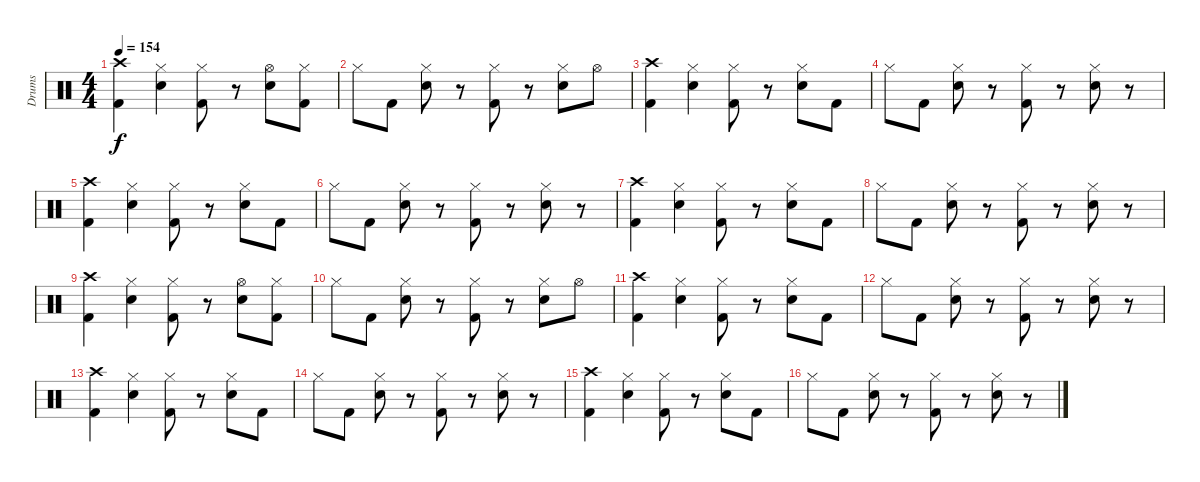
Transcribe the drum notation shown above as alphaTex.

\track ("Drums" "Drums") {instrument percussion}
\staff {score}
\articulation defaults
\ts (4 4)
\tempo 154
\clef neutral
\ks c
("Kick (hit) 2" "Crash high (hit)").4{dy f} ("Hi-Hat (closed)" "Snare (hit) 2").4 ("Kick (hit) 2" "Hi-Hat (closed)").8 r.8 ("Hi-Hat (open)" "Snare (hit) 2").8 ("Hi-Hat (closed)" "Kick (hit) 2").8 |
"Hi-Hat (closed)".8 "Kick (hit) 2".8 ("Snare (hit) 2" "Hi-Hat (closed)").8 r.8 ("Hi-Hat (closed)" "Kick (hit) 2").8 r.8 ("Hi-Hat (closed)" "Snare (hit) 2").8 "Hi-Hat (open)".8 |
("Crash high (hit)" "Kick (hit) 2").4 ("Hi-Hat (closed)" "Snare (hit) 2").4 ("Kick (hit) 2" "Hi-Hat (closed)").8 r.8 ("Hi-Hat (closed)" "Snare (hit) 2").8 "Kick (hit) 2".8 |
"Hi-Hat (closed)".8 "Kick (hit) 2".8 ("Hi-Hat (closed)" "Snare (hit) 2").8 r.8 ("Hi-Hat (closed)" "Kick (hit) 2").8 r.8 ("Snare (hit) 2" "Hi-Hat (closed)").8 r.8 |
("Crash high (hit)" "Kick (hit) 2").4 ("Snare (hit) 2" "Hi-Hat (closed)").4 ("Hi-Hat (closed)" "Kick (hit) 2").8 r.8 ("Hi-Hat (closed)" "Snare (hit) 2").8 "Kick (hit) 2".8 |
"Hi-Hat (closed)".8 "Kick (hit) 2".8 ("Snare (hit) 2" "Hi-Hat (closed)").8 r.8 ("Hi-Hat (closed)" "Kick (hit) 2").8 r.8 ("Hi-Hat (closed)" "Snare (hit) 2").8 r.8 |
("Kick (hit) 2" "Crash high (hit)").4 ("Hi-Hat (closed)" "Snare (hit) 2").4 ("Kick (hit) 2" "Hi-Hat (closed)").8 r.8 ("Hi-Hat (closed)" "Snare (hit) 2").8 "Kick (hit) 2".8 |
"Hi-Hat (closed)".8 "Kick (hit) 2".8 ("Snare (hit) 2" "Hi-Hat (closed)").8 r.8 ("Hi-Hat (closed)" "Kick (hit) 2").8 r.8 ("Hi-Hat (closed)" "Snare (hit) 2").8 r.8 |
("Kick (hit) 2" "Crash high (hit)").4 ("Hi-Hat (closed)" "Snare (hit) 2").4 ("Kick (hit) 2" "Hi-Hat (closed)").8 r.8 ("Hi-Hat (open)" "Snare (hit) 2").8 ("Kick (hit) 2" "Hi-Hat (closed)").8 |
"Hi-Hat (closed)".8 "Kick (hit) 2".8 ("Snare (hit) 2" "Hi-Hat (closed)").8 r.8 ("Hi-Hat (closed)" "Kick (hit) 2").8 r.8 ("Hi-Hat (closed)" "Snare (hit) 2").8 "Hi-Hat (open)".8 |
("Kick (hit) 2" "Crash high (hit)").4 ("Hi-Hat (closed)" "Snare (hit) 2").4 ("Kick (hit) 2" "Hi-Hat (closed)").8 r.8 ("Hi-Hat (closed)" "Snare (hit) 2").8 "Kick (hit) 2".8 |
"Hi-Hat (closed)".8 "Kick (hit) 2".8 ("Snare (hit) 2" "Hi-Hat (closed)").8 r.8 ("Kick (hit) 2" "Hi-Hat (closed)").8 r.8 ("Hi-Hat (closed)" "Snare (hit) 2").8 r.8 |
("Crash high (hit)" "Kick (hit) 2").4 ("Snare (hit) 2" "Hi-Hat (closed)").4 ("Hi-Hat (closed)" "Kick (hit) 2").8 r.8 ("Hi-Hat (closed)" "Snare (hit) 2").8 "Kick (hit) 2".8 |
"Hi-Hat (closed)".8 "Kick (hit) 2".8 ("Snare (hit) 2" "Hi-Hat (closed)").8 r.8 ("Kick (hit) 2" "Hi-Hat (closed)").8 r.8 ("Snare (hit) 2" "Hi-Hat (closed)").8 r.8 |
("Kick (hit) 2" "Crash high (hit)").4 ("Hi-Hat (closed)" "Snare (hit) 2").4 ("Kick (hit) 2" "Hi-Hat (closed)").8 r.8 ("Snare (hit) 2" "Hi-Hat (closed)").8 "Kick (hit) 2".8 |
"Hi-Hat (closed)".8 "Kick (hit) 2".8 ("Snare (hit) 2" "Hi-Hat (closed)").8 r.8 ("Hi-Hat (closed)" "Kick (hit) 2").8 r.8 ("Snare (hit) 2" "Hi-Hat (closed)").8 r.8
